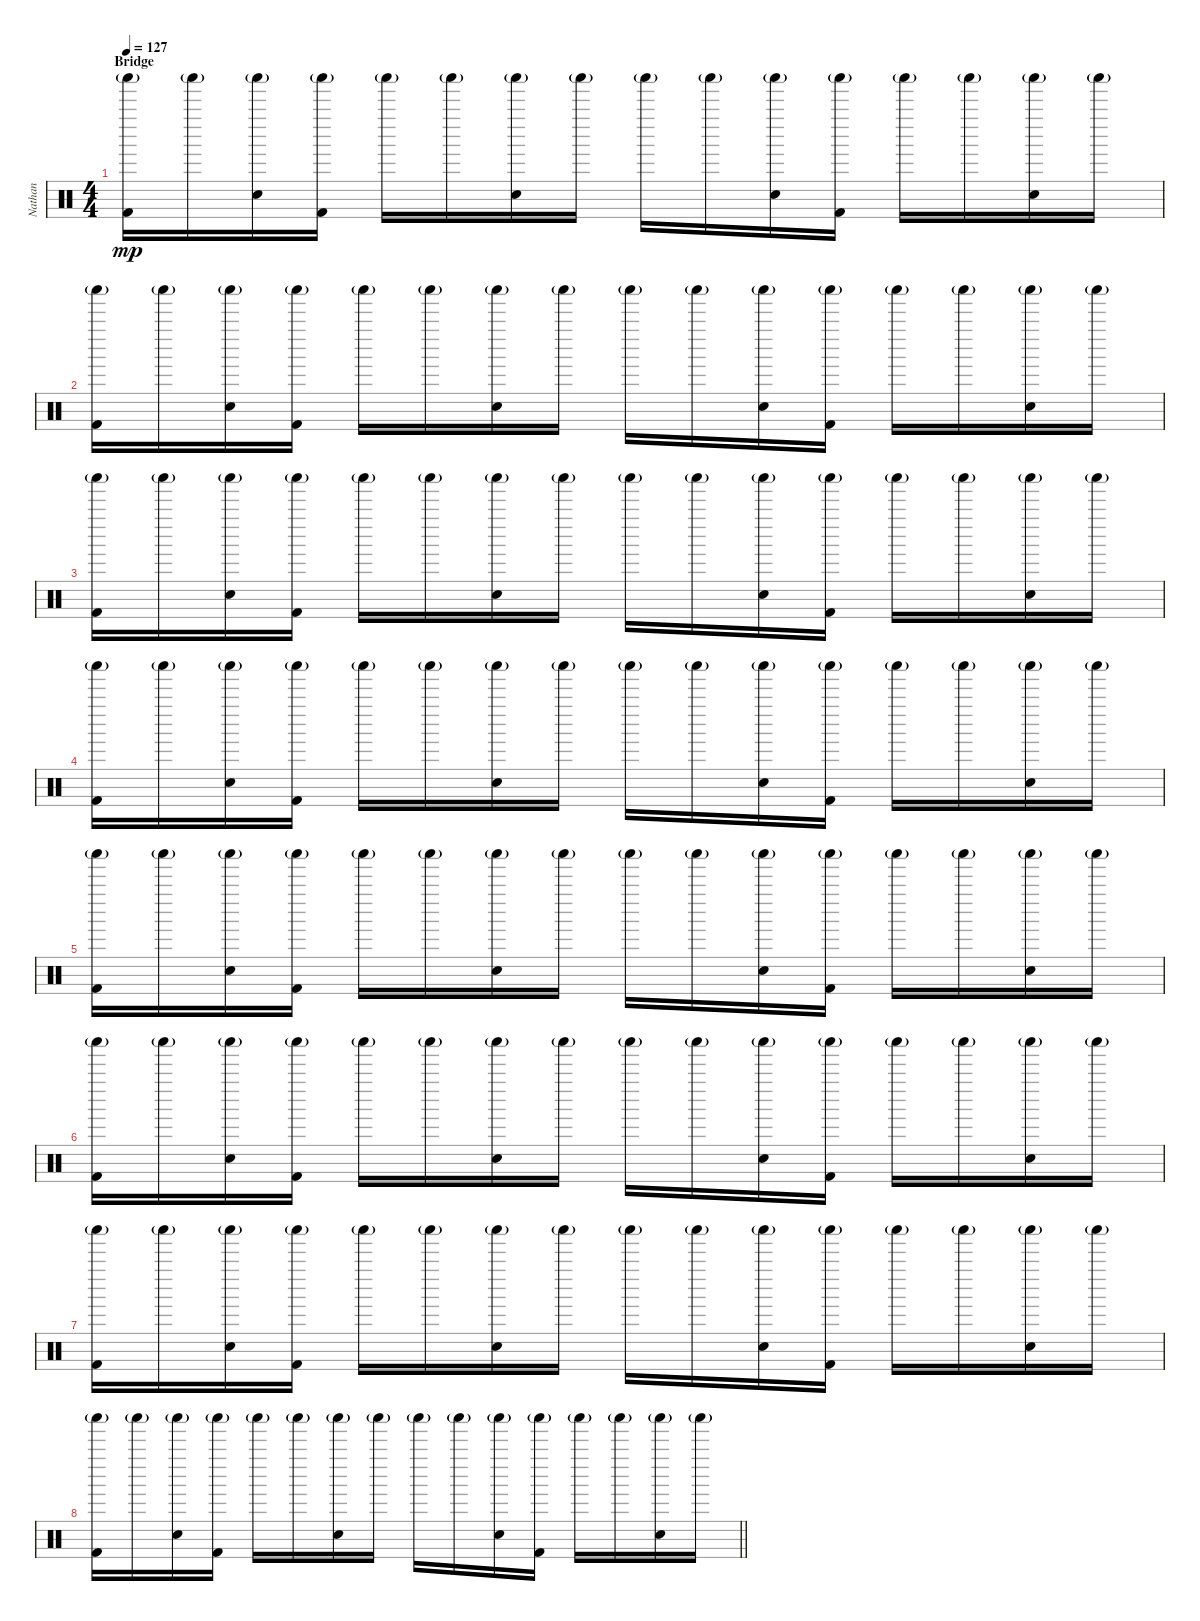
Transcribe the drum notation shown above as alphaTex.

\track ("Nathan" "Nathan") {instrument percussion}
\staff {score}
\articulation defaults
\ts (4 4)
\section ("" "Bridge")
\tempo 127
\clef neutral
\ks c
("Shaker (hit)"{g} "Kick (hit) 2").16{dy mp} "Shaker (hit)"{g}.16 ("Shaker (hit)"{g} "Electric Snare (hit)").16 ("Shaker (hit)"{g} "Kick (hit) 2").16 "Shaker (hit)"{g}.16 "Shaker (hit)"{g}.16 ("Shaker (hit)"{g} "Electric Snare (hit)").16 "Shaker (hit)"{g}.16 "Shaker (hit)"{g}.16 "Shaker (hit)"{g}.16 ("Shaker (hit)"{g} "Electric Snare (hit)").16 ("Shaker (hit)"{g} "Kick (hit) 2").16 "Shaker (hit)"{g}.16 "Shaker (hit)"{g}.16 ("Shaker (hit)"{g} "Electric Snare (hit)").16 "Shaker (hit)"{g}.16 |
("Shaker (hit)"{g} "Kick (hit) 2").16 "Shaker (hit)"{g}.16 ("Shaker (hit)"{g} "Electric Snare (hit)").16 ("Shaker (hit)"{g} "Kick (hit) 2").16 "Shaker (hit)"{g}.16 "Shaker (hit)"{g}.16 ("Shaker (hit)"{g} "Electric Snare (hit)").16 "Shaker (hit)"{g}.16 "Shaker (hit)"{g}.16 "Shaker (hit)"{g}.16 ("Shaker (hit)"{g} "Electric Snare (hit)").16 ("Shaker (hit)"{g} "Kick (hit) 2").16 "Shaker (hit)"{g}.16 "Shaker (hit)"{g}.16 ("Shaker (hit)"{g} "Electric Snare (hit)").16 "Shaker (hit)"{g}.16 |
("Shaker (hit)"{g} "Kick (hit) 2").16 "Shaker (hit)"{g}.16 ("Shaker (hit)"{g} "Electric Snare (hit)").16 ("Shaker (hit)"{g} "Kick (hit) 2").16 "Shaker (hit)"{g}.16 "Shaker (hit)"{g}.16 ("Shaker (hit)"{g} "Electric Snare (hit)").16 "Shaker (hit)"{g}.16 "Shaker (hit)"{g}.16 "Shaker (hit)"{g}.16 ("Shaker (hit)"{g} "Electric Snare (hit)").16 ("Shaker (hit)"{g} "Kick (hit) 2").16 "Shaker (hit)"{g}.16 "Shaker (hit)"{g}.16 ("Shaker (hit)"{g} "Electric Snare (hit)").16 "Shaker (hit)"{g}.16 |
("Shaker (hit)"{g} "Kick (hit) 2").16 "Shaker (hit)"{g}.16 ("Shaker (hit)"{g} "Electric Snare (hit)").16 ("Shaker (hit)"{g} "Kick (hit) 2").16 "Shaker (hit)"{g}.16 "Shaker (hit)"{g}.16 ("Shaker (hit)"{g} "Electric Snare (hit)").16 "Shaker (hit)"{g}.16 "Shaker (hit)"{g}.16 "Shaker (hit)"{g}.16 ("Shaker (hit)"{g} "Electric Snare (hit)").16 ("Shaker (hit)"{g} "Kick (hit) 2").16 "Shaker (hit)"{g}.16 "Shaker (hit)"{g}.16 ("Shaker (hit)"{g} "Electric Snare (hit)").16 "Shaker (hit)"{g}.16 |
("Shaker (hit)"{g} "Kick (hit) 2").16 "Shaker (hit)"{g}.16 ("Shaker (hit)"{g} "Electric Snare (hit)").16 ("Shaker (hit)"{g} "Kick (hit) 2").16 "Shaker (hit)"{g}.16 "Shaker (hit)"{g}.16 ("Shaker (hit)"{g} "Electric Snare (hit)").16 "Shaker (hit)"{g}.16 "Shaker (hit)"{g}.16 "Shaker (hit)"{g}.16 ("Shaker (hit)"{g} "Electric Snare (hit)").16 ("Shaker (hit)"{g} "Kick (hit) 2").16 "Shaker (hit)"{g}.16 "Shaker (hit)"{g}.16 ("Shaker (hit)"{g} "Electric Snare (hit)").16 "Shaker (hit)"{g}.16 |
("Shaker (hit)"{g} "Kick (hit) 2").16 "Shaker (hit)"{g}.16 ("Shaker (hit)"{g} "Electric Snare (hit)").16 ("Shaker (hit)"{g} "Kick (hit) 2").16 "Shaker (hit)"{g}.16 "Shaker (hit)"{g}.16 ("Shaker (hit)"{g} "Electric Snare (hit)").16 "Shaker (hit)"{g}.16 "Shaker (hit)"{g}.16 "Shaker (hit)"{g}.16 ("Shaker (hit)"{g} "Electric Snare (hit)").16 ("Shaker (hit)"{g} "Kick (hit) 2").16 "Shaker (hit)"{g}.16 "Shaker (hit)"{g}.16 ("Shaker (hit)"{g} "Electric Snare (hit)").16 "Shaker (hit)"{g}.16 |
("Shaker (hit)"{g} "Kick (hit) 2").16 "Shaker (hit)"{g}.16 ("Shaker (hit)"{g} "Electric Snare (hit)").16 ("Shaker (hit)"{g} "Kick (hit) 2").16 "Shaker (hit)"{g}.16 "Shaker (hit)"{g}.16 ("Shaker (hit)"{g} "Electric Snare (hit)").16 "Shaker (hit)"{g}.16 "Shaker (hit)"{g}.16 "Shaker (hit)"{g}.16 ("Shaker (hit)"{g} "Electric Snare (hit)").16 ("Shaker (hit)"{g} "Kick (hit) 2").16 "Shaker (hit)"{g}.16 "Shaker (hit)"{g}.16 ("Shaker (hit)"{g} "Electric Snare (hit)").16 "Shaker (hit)"{g}.16 |
\barLineRight lightlight
("Shaker (hit)"{g} "Kick (hit) 2").16 "Shaker (hit)"{g}.16 ("Shaker (hit)"{g} "Electric Snare (hit)").16 ("Shaker (hit)"{g} "Kick (hit) 2").16 "Shaker (hit)"{g}.16 "Shaker (hit)"{g}.16 ("Shaker (hit)"{g} "Electric Snare (hit)").16 "Shaker (hit)"{g}.16 "Shaker (hit)"{g}.16 "Shaker (hit)"{g}.16 ("Shaker (hit)"{g} "Electric Snare (hit)").16 ("Shaker (hit)"{g} "Kick (hit) 2").16 "Shaker (hit)"{g}.16 "Shaker (hit)"{g}.16 ("Shaker (hit)"{g} "Electric Snare (hit)").16 "Shaker (hit)"{g}.16
